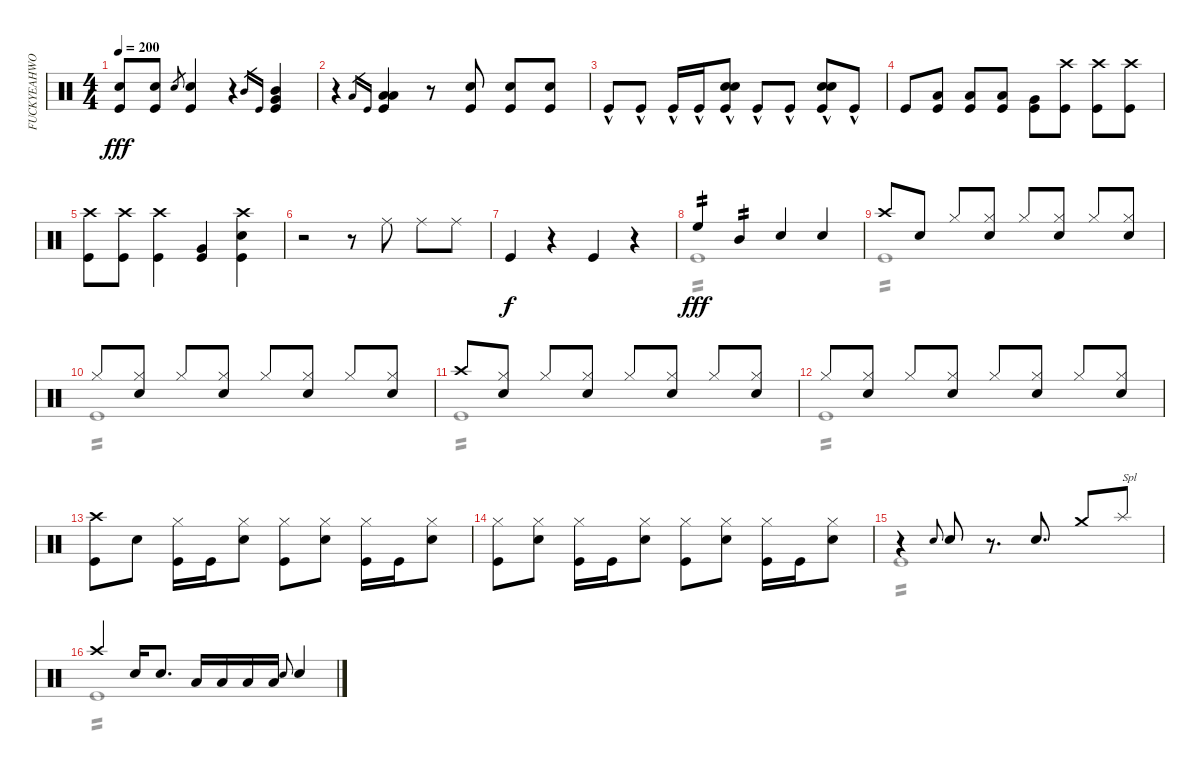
\track ("FUCKYEAHWOOTDAVEMACKINTOSH!(Percussion)" "FUCKYEAHWO") {instrument percussion}
\staff {score}
\articulation defaults
\voice
\ts (4 4)
\tempo 200
\clef neutral
\ks c
("Kick (hit)" "Snare (hit) 2").8{dy fff} ("Snare (hit) 2" "Kick (hit)").8 "Snare (hit) 2".8{gr} ("Kick (hit)" "Snare (hit) 2").4 r.4 "Mid Tom (hit)".16{gr} "Kick (hit)".16{gr} ("Mid Tom (hit)" "Very Low Tom (hit)" "Kick (hit)").4 |
r.4 "Low Tom (hit)".16{gr} "Kick (hit)".16{gr} ("Low Tom (hit)" "Low Floor Tom (hit)" "Kick (hit)").4 r.8 ("Kick (hit)" "Snare (hit) 2").8 ("Kick (hit)" "Snare (hit) 2").8 ("Kick (hit)" "Snare (hit) 2").8 |
"Kick (hit)"{hac}.8 "Kick (hit)"{hac}.8 "Kick (hit)"{hac}.16 "Kick (hit)"{hac}.16 ("Kick (hit)"{hac} "Snare (hit) 2" "Electric Snare (hit)").8 "Kick (hit)"{hac}.8 "Kick (hit)"{hac}.8 ("Snare (hit) 2" "Kick (hit)"{hac} "Electric Snare (hit)").8 "Kick (hit)"{hac}.8 |
"Kick (hit)".8 ("Low Tom (hit)" "Kick (hit)").8 ("Low Tom (hit)" "Kick (hit)").8 ("Low Tom (hit)" "Kick (hit)").8 ("Kick (hit)" "Very Low Tom (hit)").8 ("Crash high (hit)" "Kick (hit)").8 ("Crash high (hit)" "Kick (hit)").8 ("Crash high (hit)" "Kick (hit)").8 |
("Kick (hit)" "Crash high (hit)").8 ("Kick (hit)" "Crash high (hit)").8 ("Kick (hit)" "Crash high (hit)").4 ("Kick (hit)" "Very Low Tom (hit)").4 ("Kick (hit)" "Snare (hit) 2" "Crash high (hit)").4 |
r.2 r.8 "Ride (middle)".8 "Ride (middle)".8 "Ride (middle)".8 |
"Kick (hit)".4{dy f} r.4 "Kick (hit)".4 r.4 |
"High Floor Tom (hit)".4{tp 2 dy fff} "Mid Tom (hit)".4{tp 2} "Snare (hit) 2".4 "Snare (hit) 2".4 |
"Crash high (hit)".8 "Snare (hit) 2".8 "Hi-Hat (closed)".8 ("Hi-Hat (closed)" "Snare (hit) 2").8 "Hi-Hat (closed)".8 ("Hi-Hat (closed)" "Snare (hit) 2").8 "Hi-Hat (closed)".8 ("Hi-Hat (closed)" "Snare (hit) 2").8 |
"Hi-Hat (closed)".8 ("Hi-Hat (closed)" "Snare (hit) 2").8 "Hi-Hat (closed)".8 ("Hi-Hat (closed)" "Snare (hit) 2").8 "Hi-Hat (closed)".8 ("Hi-Hat (closed)" "Snare (hit) 2").8 "Hi-Hat (closed)".8 ("Hi-Hat (closed)" "Snare (hit) 2").8 |
"Crash high (hit)".8 ("Hi-Hat (closed)" "Snare (hit) 2").8 "Hi-Hat (closed)".8 ("Hi-Hat (closed)" "Snare (hit) 2").8 "Hi-Hat (closed)".8 ("Hi-Hat (closed)" "Snare (hit) 2").8 "Hi-Hat (closed)".8 ("Hi-Hat (closed)" "Snare (hit) 2").8 |
"Hi-Hat (closed)".8 ("Hi-Hat (closed)" "Snare (hit) 2").8 "Hi-Hat (closed)".8 ("Hi-Hat (closed)" "Snare (hit) 2").8 "Hi-Hat (closed)".8 ("Hi-Hat (closed)" "Snare (hit) 2").8 "Hi-Hat (closed)".8 ("Hi-Hat (closed)" "Snare (hit) 2").8 |
("Crash high (hit)" "Kick (hit)").8 "Snare (hit) 2".8 ("Kick (hit)" "Hi-Hat (closed)").16 "Kick (hit)".16 ("Snare (hit) 2" "Hi-Hat (closed)").8 ("Hi-Hat (closed)" "Kick (hit)").8 ("Hi-Hat (closed)" "Snare (hit) 2").8 ("Kick (hit)" "Hi-Hat (closed)").16 "Kick (hit)".16 ("Snare (hit) 2" "Hi-Hat (closed)").8 |
("Hi-Hat (closed)" "Kick (hit)").8 ("Hi-Hat (closed)" "Snare (hit) 2").8 ("Kick (hit)" "Hi-Hat (closed)").16 "Kick (hit)".16 ("Snare (hit) 2" "Hi-Hat (closed)").8 ("Hi-Hat (closed)" "Kick (hit)").8 ("Hi-Hat (closed)" "Snare (hit) 2").8 ("Kick (hit)" "Hi-Hat (closed)").16 "Kick (hit)".16 ("Snare (hit) 2" "Hi-Hat (closed)").8 |
r.4 "Snare (hit) 2".8{gr onbeat} "Snare (hit) 2".8 r.8{d} "Snare (hit) 2".8{d} "Crash medium (hit)".8 "Splash (hit)".8{txt "Spl"} |
"Crash high (hit)".4 "Snare (hit) 2".16 "Snare (hit) 2".8{d} "Low Floor Tom (hit)".16 "Low Floor Tom (hit)".16 "Low Floor Tom (hit)".16 "Low Floor Tom (hit)".16 "Snare (hit) 2".8{gr onbeat} "Snare (hit) 2".4
\voice
\clef neutral
\ottava regular
\simile none
\ks c
|
|
|
|
|
|
|
"Kick (hit)".1{tp 2} |
"Kick (hit)".1{tp 2} |
"Kick (hit)".1{tp 2} |
"Kick (hit)".1{tp 2} |
"Kick (hit)".1{tp 2} |
|
|
"Kick (hit)".1{tp 2} |
"Kick (hit)".1{tp 2}
